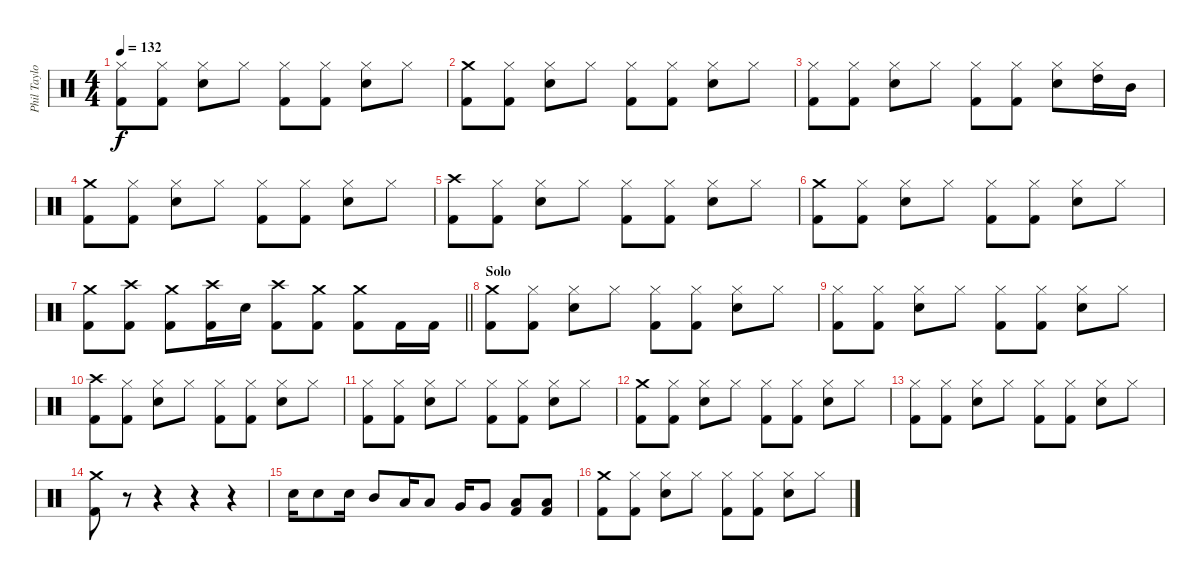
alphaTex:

\track ("Phil Taylor" "Phil Taylo") {instrument percussion}
\staff {score}
\articulation defaults
\ts (4 4)
\tempo 132
\clef neutral
\ks c
("Hi-Hat (closed)" "Kick (hit) 2").8{dy f} ("Hi-Hat (closed)" "Kick (hit) 2").8 ("Hi-Hat (closed)" "Snare (hit) 2").8 "Hi-Hat (closed)".8 ("Hi-Hat (closed)" "Kick (hit) 2").8 ("Hi-Hat (closed)" "Kick (hit) 2").8 ("Hi-Hat (closed)" "Snare (hit) 2").8 "Hi-Hat (closed)".8 |
("Crash medium (hit)" "Kick (hit) 2").8 ("Hi-Hat (closed)" "Kick (hit) 2").8 ("Hi-Hat (closed)" "Snare (hit) 2").8 "Hi-Hat (closed)".8 ("Hi-Hat (closed)" "Kick (hit) 2").8 ("Hi-Hat (closed)" "Kick (hit) 2").8 ("Hi-Hat (closed)" "Snare (hit) 2").8 "Hi-Hat (closed)".8 |
("Hi-Hat (closed)" "Kick (hit) 2").8 ("Hi-Hat (closed)" "Kick (hit) 2").8 ("Hi-Hat (closed)" "Snare (hit) 2").8 "Hi-Hat (closed)".8 ("Hi-Hat (closed)" "Kick (hit) 2").8 ("Hi-Hat (closed)" "Kick (hit) 2").8 ("Hi-Hat (closed)" "Snare (hit) 2").8 ("Hi-Hat (closed)" "High Tom (hit)").16 "Mid Tom (hit)".16 |
("Crash medium (hit)" "Kick (hit) 2").8 ("Hi-Hat (closed)" "Kick (hit) 2").8 ("Hi-Hat (closed)" "Snare (hit) 2").8 "Hi-Hat (closed)".8 ("Hi-Hat (closed)" "Kick (hit) 2").8 ("Hi-Hat (closed)" "Kick (hit) 2").8 ("Hi-Hat (closed)" "Snare (hit) 2").8 "Hi-Hat (closed)".8 |
("Crash high (hit)" "Kick (hit) 2").8 ("Hi-Hat (closed)" "Kick (hit) 2").8 ("Hi-Hat (closed)" "Snare (hit) 2").8 "Hi-Hat (closed)".8 ("Hi-Hat (closed)" "Kick (hit) 2").8 ("Hi-Hat (closed)" "Kick (hit) 2").8 ("Hi-Hat (closed)" "Snare (hit) 2").8 "Hi-Hat (closed)".8 |
("Crash medium (hit)" "Kick (hit) 2").8 ("Hi-Hat (closed)" "Kick (hit) 2").8 ("Hi-Hat (closed)" "Snare (hit) 2").8 "Hi-Hat (closed)".8 ("Hi-Hat (closed)" "Kick (hit) 2").8 ("Hi-Hat (closed)" "Kick (hit) 2").8 ("Hi-Hat (closed)" "Snare (hit) 2").8 "Hi-Hat (closed)".8 |
\barLineRight lightlight
("Crash medium (hit)" "Kick (hit) 2").8 ("Crash high (hit)" "Kick (hit) 2").8 ("Crash medium (hit)" "Kick (hit) 2").8 ("Crash high (hit)" "Kick (hit) 2").16 "Snare (hit) 2".16 ("Crash high (hit)" "Kick (hit) 2").8 ("Crash medium (hit)" "Kick (hit) 2").8 ("Crash medium (hit)" "Kick (hit) 2").8 "Kick (hit) 2".16 "Kick (hit) 2".16 |
\section ("" "Solo")
("Crash medium (hit)" "Kick (hit) 2").8 ("Hi-Hat (closed)" "Kick (hit) 2").8 ("Hi-Hat (closed)" "Snare (hit) 2").8 "Hi-Hat (closed)".8 ("Hi-Hat (closed)" "Kick (hit) 2").8 ("Hi-Hat (closed)" "Kick (hit) 2").8 ("Hi-Hat (closed)" "Snare (hit) 2").8 "Hi-Hat (closed)".8 |
("Hi-Hat (closed)" "Kick (hit) 2").8 ("Hi-Hat (closed)" "Kick (hit) 2").8 ("Hi-Hat (closed)" "Snare (hit) 2").8 "Hi-Hat (closed)".8 ("Hi-Hat (closed)" "Kick (hit) 2").8 ("Hi-Hat (closed)" "Kick (hit) 2").8 ("Hi-Hat (closed)" "Snare (hit) 2").8 "Hi-Hat (closed)".8 |
("Crash high (hit)" "Kick (hit) 2").8 ("Hi-Hat (closed)" "Kick (hit) 2").8 ("Hi-Hat (closed)" "Snare (hit) 2").8 "Hi-Hat (closed)".8 ("Hi-Hat (closed)" "Kick (hit) 2").8 ("Hi-Hat (closed)" "Kick (hit) 2").8 ("Hi-Hat (closed)" "Snare (hit) 2").8 "Hi-Hat (closed)".8 |
("Hi-Hat (closed)" "Kick (hit) 2").8 ("Hi-Hat (closed)" "Kick (hit) 2").8 ("Hi-Hat (closed)" "Snare (hit) 2").8 "Hi-Hat (closed)".8 ("Hi-Hat (closed)" "Kick (hit) 2").8 ("Hi-Hat (closed)" "Kick (hit) 2").8 ("Hi-Hat (closed)" "Snare (hit) 2").8 "Hi-Hat (closed)".8 |
("Crash medium (hit)" "Kick (hit) 2").8 ("Hi-Hat (closed)" "Kick (hit) 2").8 ("Hi-Hat (closed)" "Snare (hit) 2").8 "Hi-Hat (closed)".8 ("Hi-Hat (closed)" "Kick (hit) 2").8 ("Hi-Hat (closed)" "Kick (hit) 2").8 ("Hi-Hat (closed)" "Snare (hit) 2").8 "Hi-Hat (closed)".8 |
("Hi-Hat (closed)" "Kick (hit) 2").8 ("Hi-Hat (closed)" "Kick (hit) 2").8 ("Hi-Hat (closed)" "Snare (hit) 2").8 "Hi-Hat (closed)".8 ("Hi-Hat (closed)" "Kick (hit) 2").8 ("Hi-Hat (closed)" "Kick (hit) 2").8 ("Hi-Hat (closed)" "Snare (hit) 2").8 "Hi-Hat (closed)".8 |
("Crash medium (hit)" "Kick (hit) 2").8 r.8 r.4 r.4 r.4 |
"Snare (hit) 2".16 "Snare (hit) 2".8 "Snare (hit) 2".16 "Mid Tom (hit)".8 "Low Tom (hit)".16 "Low Tom (hit)".8 "Very Low Tom (hit)".16 "Very Low Tom (hit)".8 ("Low Floor Tom (hit)" "Kick (hit) 2").8 ("Low Floor Tom (hit)" "Kick (hit) 2").8 |
("Crash medium (hit)" "Kick (hit) 2").8 ("Hi-Hat (closed)" "Kick (hit) 2").8 ("Hi-Hat (closed)" "Snare (hit) 2").8 "Hi-Hat (closed)".8 ("Hi-Hat (closed)" "Kick (hit) 2").8 ("Hi-Hat (closed)" "Kick (hit) 2").8 ("Hi-Hat (closed)" "Snare (hit) 2").8 "Hi-Hat (closed)".8
